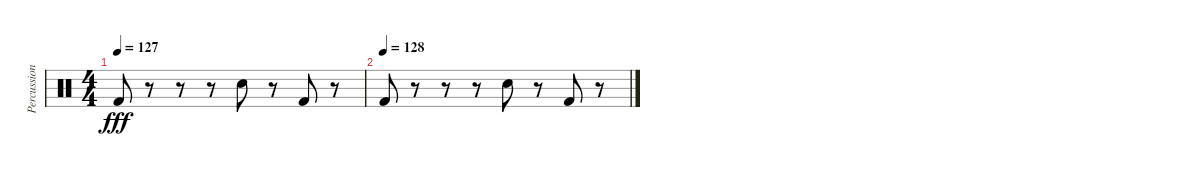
\track ("Percussion" "Percussion") {instrument percussion}
\staff {score}
\articulation defaults
\ts (4 4)
\tempo 127
\clef neutral
\ks c "Kick (hit) 2".8{dy fff}
r.8 r.8 r.8 "Electric Snare (hit)".8 r.8 "Kick (hit) 2".8 r.8 |
\tempo (128)
"Kick (hit) 2".8 r.8 r.8 r.8 "Electric Snare (hit)".8 r.8 "Kick (hit) 2".8 r.8
